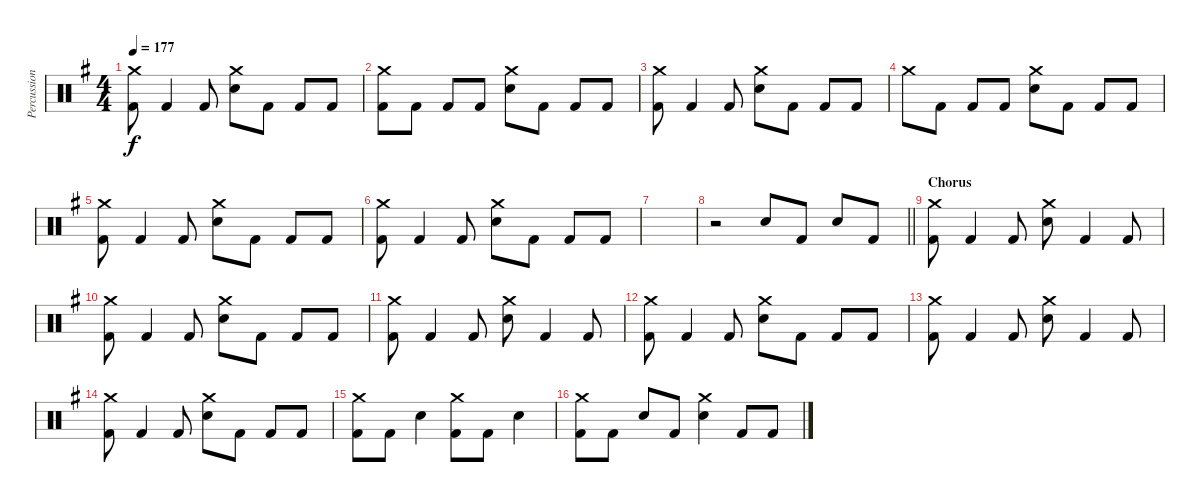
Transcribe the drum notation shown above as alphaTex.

\track ("Percussion" "Percussion") {instrument percussion}
\staff {score}
\articulation defaults
\ts (4 4)
\tempo 177
\clef neutral
\ks g
("Crash medium (hit)" "Kick (hit) 2").8{dy f} "Kick (hit) 2".4 "Kick (hit) 2".8 ("Crash medium (hit)" "Electric Snare (hit)").8 "Kick (hit) 2".8 "Kick (hit) 2".8 "Kick (hit) 2".8 |
("Crash medium (hit)" "Kick (hit) 2").8 "Kick (hit) 2".8 "Kick (hit) 2".8 "Kick (hit) 2".8 ("Crash medium (hit)" "Electric Snare (hit)").8 "Kick (hit) 2".8 "Kick (hit) 2".8 "Kick (hit) 2".8 |
("Crash medium (hit)" "Kick (hit) 2").8 "Kick (hit) 2".4 "Kick (hit) 2".8 ("Crash medium (hit)" "Electric Snare (hit)").8 "Kick (hit) 2".8 "Kick (hit) 2".8 "Kick (hit) 2".8 |
"Crash medium (hit)".8 "Kick (hit) 2".8 "Kick (hit) 2".8 "Kick (hit) 2".8 ("Crash medium (hit)" "Electric Snare (hit)").8 "Kick (hit) 2".8 "Kick (hit) 2".8 "Kick (hit) 2".8 |
("Crash medium (hit)" "Kick (hit) 2").8 "Kick (hit) 2".4 "Kick (hit) 2".8 ("Crash medium (hit)" "Electric Snare (hit)").8 "Kick (hit) 2".8 "Kick (hit) 2".8 "Kick (hit) 2".8 |
("Crash medium (hit)" "Kick (hit) 2").8 "Kick (hit) 2".4 "Kick (hit) 2".8 ("Crash medium (hit)" "Electric Snare (hit)").8 "Kick (hit) 2".8 "Kick (hit) 2".8 "Kick (hit) 2".8 |
|
\barLineRight lightlight
r.2 "Electric Snare (hit)".8 "Kick (hit) 2".8 "Electric Snare (hit)".8 "Kick (hit) 2".8 |
\section ("" "Chorus")
("Crash medium (hit)" "Kick (hit) 2").8 "Kick (hit) 2".4 "Kick (hit) 2".8 ("Crash medium (hit)" "Electric Snare (hit)").8 "Kick (hit) 2".4 "Kick (hit) 2".8 |
("Crash medium (hit)" "Kick (hit) 2").8 "Kick (hit) 2".4 "Kick (hit) 2".8 ("Crash medium (hit)" "Electric Snare (hit)").8 "Kick (hit) 2".8 "Kick (hit) 2".8 "Kick (hit) 2".8 |
("Crash medium (hit)" "Kick (hit) 2").8 "Kick (hit) 2".4 "Kick (hit) 2".8 ("Crash medium (hit)" "Electric Snare (hit)").8 "Kick (hit) 2".4 "Kick (hit) 2".8 |
("Crash medium (hit)" "Kick (hit) 2").8 "Kick (hit) 2".4 "Kick (hit) 2".8 ("Crash medium (hit)" "Electric Snare (hit)").8 "Kick (hit) 2".8 "Kick (hit) 2".8 "Kick (hit) 2".8 |
("Crash medium (hit)" "Kick (hit) 2").8 "Kick (hit) 2".4 "Kick (hit) 2".8 ("Crash medium (hit)" "Electric Snare (hit)").8 "Kick (hit) 2".4 "Kick (hit) 2".8 |
("Crash medium (hit)" "Kick (hit) 2").8 "Kick (hit) 2".4 "Kick (hit) 2".8 ("Crash medium (hit)" "Electric Snare (hit)").8 "Kick (hit) 2".8 "Kick (hit) 2".8 "Kick (hit) 2".8 |
("Crash medium (hit)" "Kick (hit) 2").8 "Kick (hit) 2".8 "Electric Snare (hit)".4 ("Crash medium (hit)" "Kick (hit) 2").8 "Kick (hit) 2".8 "Electric Snare (hit)".4 |
("Crash medium (hit)" "Kick (hit) 2").8 "Kick (hit) 2".8 "Electric Snare (hit)".8 "Kick (hit) 2".8 ("Crash medium (hit)" "Electric Snare (hit)").4 "Kick (hit) 2".8 "Kick (hit) 2".8
